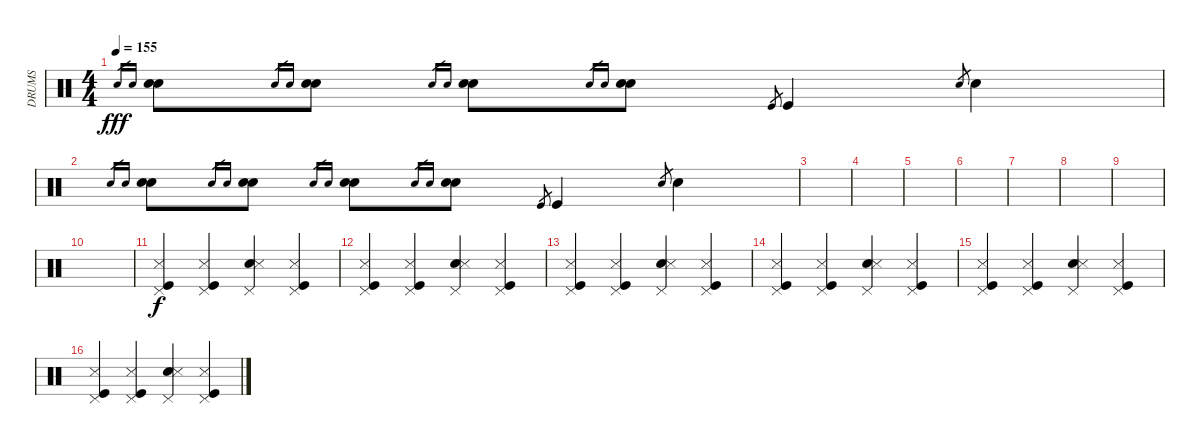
\track ("DRUMS" "DRUMS") {instrument percussion}
\staff {score}
\articulation defaults
\ts (4 4)
\tempo 155
\clef neutral
\ks c "Snare (hit) 2".16{gr dy fff} "Snare (hit) 2".16{gr}
("Snare (hit) 2" "Snare (hit) 2").8{volume 16} "Snare (hit) 2".16{gr} "Snare (hit) 2".16{gr} ("Snare (hit) 2" "Snare (hit) 2").8 "Snare (hit) 2".16{gr} "Snare (hit) 2".16{gr} ("Snare (hit) 2" "Snare (hit) 2").8 "Snare (hit) 2".16{gr} "Snare (hit) 2".16{gr} ("Snare (hit) 2" "Snare (hit) 2").8 "Kick (hit)".8{gr} "Kick (hit)".4 "Snare (hit) 2".8{gr} "Snare (hit) 2".4 |
"Snare (hit) 2".16{gr} "Snare (hit) 2".16{gr} ("Snare (hit) 2" "Snare (hit) 2").8 "Snare (hit) 2".16{gr} "Snare (hit) 2".16{gr} ("Snare (hit) 2" "Snare (hit) 2").8 "Snare (hit) 2".16{gr} "Snare (hit) 2".16{gr} ("Snare (hit) 2" "Snare (hit) 2").8 "Snare (hit) 2".16{gr} "Snare (hit) 2".16{gr} ("Snare (hit) 2" "Snare (hit) 2").8 "Kick (hit)".8{gr} "Kick (hit)".4 "Snare (hit) 2".8{gr} "Snare (hit) 2".4 |
|
|
|
|
|
|
|
|
("Kick (hit)" "Snare (side stick) 3" "Pedal Hi-Hat (hit)").4{dy f balance 16} ("Kick (hit)" "Snare (side stick) 3" "Pedal Hi-Hat (hit)").4 ("Snare (hit) 2" "Snare (side stick) 3" "Pedal Hi-Hat (hit)").4 ("Kick (hit)" "Snare (side stick) 3" "Pedal Hi-Hat (hit)").4 |
("Kick (hit)" "Snare (side stick) 3" "Pedal Hi-Hat (hit)").4 ("Kick (hit)" "Snare (side stick) 3" "Pedal Hi-Hat (hit)").4 ("Snare (hit) 2" "Snare (side stick) 3" "Pedal Hi-Hat (hit)").4 ("Kick (hit)" "Snare (side stick) 3" "Pedal Hi-Hat (hit)").4 |
("Kick (hit)" "Snare (side stick) 3" "Pedal Hi-Hat (hit)").4 ("Kick (hit)" "Snare (side stick) 3" "Pedal Hi-Hat (hit)").4 ("Snare (hit) 2" "Snare (side stick) 3" "Pedal Hi-Hat (hit)").4 ("Kick (hit)" "Snare (side stick) 3" "Pedal Hi-Hat (hit)").4 |
("Kick (hit)" "Snare (side stick) 3" "Pedal Hi-Hat (hit)").4 ("Kick (hit)" "Snare (side stick) 3" "Pedal Hi-Hat (hit)").4 ("Snare (hit) 2" "Snare (side stick) 3" "Pedal Hi-Hat (hit)").4 ("Kick (hit)" "Snare (side stick) 3" "Pedal Hi-Hat (hit)").4 |
("Kick (hit)" "Snare (side stick) 3" "Pedal Hi-Hat (hit)").4 ("Kick (hit)" "Snare (side stick) 3" "Pedal Hi-Hat (hit)").4 ("Snare (hit) 2" "Snare (side stick) 3" "Pedal Hi-Hat (hit)").4 ("Kick (hit)" "Snare (side stick) 3" "Pedal Hi-Hat (hit)").4 |
("Kick (hit)" "Snare (side stick) 3" "Pedal Hi-Hat (hit)").4 ("Kick (hit)" "Snare (side stick) 3" "Pedal Hi-Hat (hit)").4 ("Snare (hit) 2" "Snare (side stick) 3" "Pedal Hi-Hat (hit)").4 ("Kick (hit)" "Snare (side stick) 3" "Pedal Hi-Hat (hit)").4
